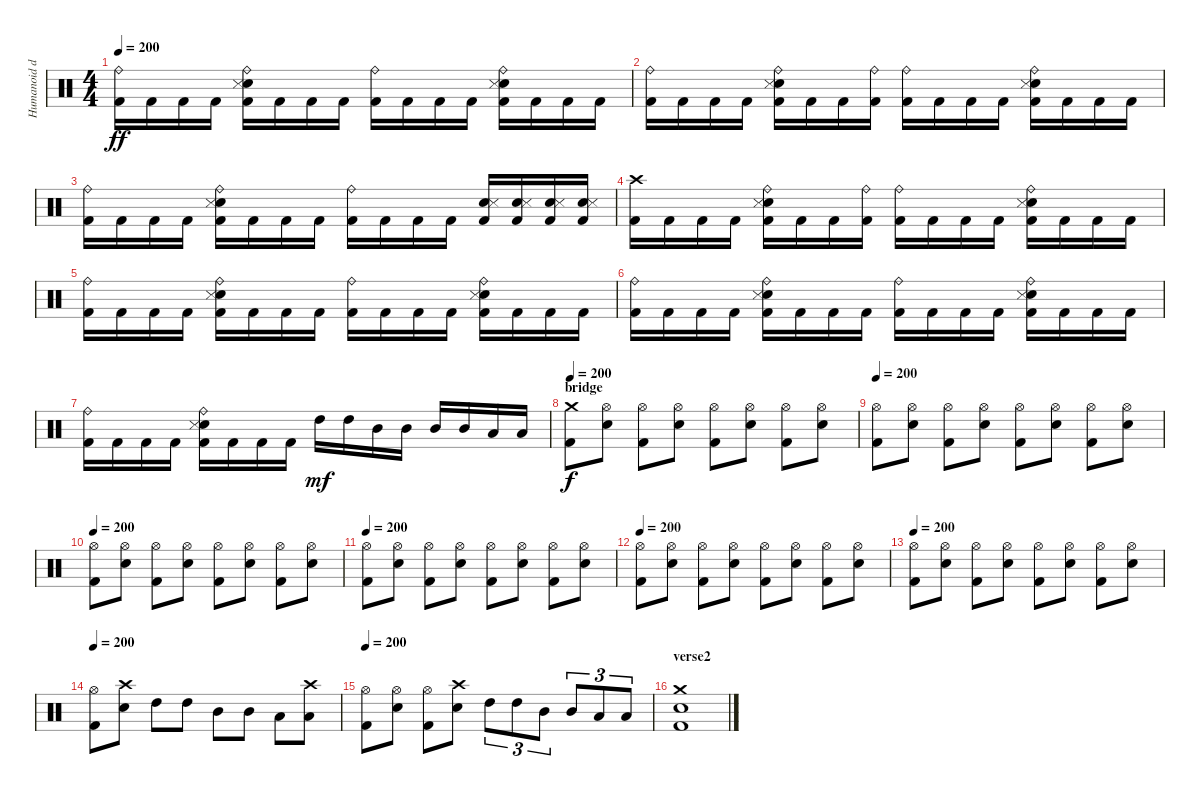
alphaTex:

\track ("Humanoid drum machine" "Humanoid d") {instrument percussion}
\staff {score}
\articulation defaults
\ts (4 4)
\tempo 200
\clef neutral
\ks c
("Ride (bell)" "Kick (hit) 2").16{dy ff} "Kick (hit) 2".16 "Kick (hit) 2".16 "Kick (hit) 2".16 ("Ride (bell)" "Electric Snare (hit)" "Snare (side stick) 3" "Kick (hit) 2").16 "Kick (hit) 2".16 "Kick (hit) 2".16 "Kick (hit) 2".16 ("Ride (bell)" "Kick (hit) 2").16 "Kick (hit) 2".16 "Kick (hit) 2".16 "Kick (hit) 2".16 ("Ride (bell)" "Electric Snare (hit)" "Snare (side stick) 3" "Kick (hit) 2").16 "Kick (hit) 2".16 "Kick (hit) 2".16 "Kick (hit) 2".16 |
("Ride (bell)" "Kick (hit) 2").16 "Kick (hit) 2".16 "Kick (hit) 2".16 "Kick (hit) 2".16 ("Ride (bell)" "Electric Snare (hit)" "Snare (side stick) 3" "Kick (hit) 2").16 "Kick (hit) 2".16 "Kick (hit) 2".16 ("Ride (bell)" "Kick (hit) 2").16 ("Ride (bell)" "Kick (hit) 2").16 "Kick (hit) 2".16 "Kick (hit) 2".16 "Kick (hit) 2".16 ("Ride (bell)" "Electric Snare (hit)" "Snare (side stick) 3" "Kick (hit) 2").16 "Kick (hit) 2".16 "Kick (hit) 2".16 "Kick (hit) 2".16 |
("Ride (bell)" "Kick (hit) 2").16 "Kick (hit) 2".16 "Kick (hit) 2".16 "Kick (hit) 2".16 ("Ride (bell)" "Electric Snare (hit)" "Snare (side stick) 3" "Kick (hit) 2").16 "Kick (hit) 2".16 "Kick (hit) 2".16 "Kick (hit) 2".16 ("Ride (bell)" "Kick (hit) 2").16 "Kick (hit) 2".16 "Kick (hit) 2".16 "Kick (hit) 2".16 ("Electric Snare (hit)" "Snare (side stick) 3" "Kick (hit) 2").16 ("Electric Snare (hit)" "Snare (side stick) 3" "Kick (hit) 2").16 ("Electric Snare (hit)" "Snare (side stick) 3" "Kick (hit) 2").16 ("Electric Snare (hit)" "Snare (side stick) 3" "Kick (hit) 2").16 |
("Crash high (hit)" "Kick (hit) 2").16 "Kick (hit) 2".16 "Kick (hit) 2".16 "Kick (hit) 2".16 ("Ride (bell)" "Electric Snare (hit)" "Snare (side stick) 3" "Kick (hit) 2").16 "Kick (hit) 2".16 "Kick (hit) 2".16 ("Ride (bell)" "Kick (hit) 2").16 ("Ride (bell)" "Kick (hit) 2").16 "Kick (hit) 2".16 "Kick (hit) 2".16 "Kick (hit) 2".16 ("Ride (bell)" "Electric Snare (hit)" "Snare (side stick) 3" "Kick (hit) 2").16 "Kick (hit) 2".16 "Kick (hit) 2".16 "Kick (hit) 2".16 |
("Ride (bell)" "Kick (hit) 2").16 "Kick (hit) 2".16 "Kick (hit) 2".16 "Kick (hit) 2".16 ("Ride (bell)" "Electric Snare (hit)" "Snare (side stick) 3" "Kick (hit) 2").16 "Kick (hit) 2".16 "Kick (hit) 2".16 "Kick (hit) 2".16 ("Ride (bell)" "Kick (hit) 2").16 "Kick (hit) 2".16 "Kick (hit) 2".16 "Kick (hit) 2".16 ("Ride (bell)" "Electric Snare (hit)" "Snare (side stick) 3" "Kick (hit) 2").16 "Kick (hit) 2".16 "Kick (hit) 2".16 "Kick (hit) 2".16 |
("Ride (bell)" "Kick (hit) 2").16 "Kick (hit) 2".16 "Kick (hit) 2".16 "Kick (hit) 2".16 ("Ride (bell)" "Electric Snare (hit)" "Snare (side stick) 3" "Kick (hit) 2").16 "Kick (hit) 2".16 "Kick (hit) 2".16 "Kick (hit) 2".16 ("Ride (bell)" "Kick (hit) 2").16 "Kick (hit) 2".16 "Kick (hit) 2".16 "Kick (hit) 2".16 ("Ride (bell)" "Electric Snare (hit)" "Snare (side stick) 3" "Kick (hit) 2").16 "Kick (hit) 2".16 "Kick (hit) 2".16 "Kick (hit) 2".16 |
("Ride (bell)" "Kick (hit) 2").16 "Kick (hit) 2".16 "Kick (hit) 2".16 "Kick (hit) 2".16 ("Ride (bell)" "Electric Snare (hit)" "Snare (side stick) 3" "Kick (hit) 2").16 "Kick (hit) 2".16 "Kick (hit) 2".16 "Kick (hit) 2".16 "High Tom (hit)".16{dy mf} "High Tom (hit)".16 "Mid Tom (hit)".16 "Mid Tom (hit)".16 "Mid Tom (hit)".16 "Mid Tom (hit)".16 "Low Tom (hit)".16 "Low Tom (hit)".16 |
\section ("" "bridge")
\tempo 200
("Crash medium (hit)" "Kick (hit) 2").8{dy f} ("Hi-Hat (open)" "Electric Snare (hit)").8 ("Hi-Hat (open)" "Kick (hit) 2").8 ("Hi-Hat (open)" "Electric Snare (hit)").8 ("Hi-Hat (open)" "Kick (hit) 2").8 ("Hi-Hat (open)" "Electric Snare (hit)").8 ("Hi-Hat (open)" "Kick (hit) 2").8 ("Hi-Hat (open)" "Electric Snare (hit)").8 |
\tempo 200
("Hi-Hat (open)" "Kick (hit) 2").8 ("Hi-Hat (open)" "Electric Snare (hit)").8 ("Hi-Hat (open)" "Kick (hit) 2").8 ("Hi-Hat (open)" "Electric Snare (hit)").8 ("Hi-Hat (open)" "Kick (hit) 2").8 ("Hi-Hat (open)" "Electric Snare (hit)").8 ("Hi-Hat (open)" "Kick (hit) 2").8 ("Hi-Hat (open)" "Electric Snare (hit)").8 |
\tempo 200
("Hi-Hat (open)" "Kick (hit) 2").8 ("Hi-Hat (open)" "Electric Snare (hit)").8 ("Hi-Hat (open)" "Kick (hit) 2").8 ("Hi-Hat (open)" "Electric Snare (hit)").8 ("Hi-Hat (open)" "Kick (hit) 2").8 ("Hi-Hat (open)" "Electric Snare (hit)").8 ("Hi-Hat (open)" "Kick (hit) 2").8 ("Hi-Hat (open)" "Electric Snare (hit)").8 |
\tempo 200
("Hi-Hat (open)" "Kick (hit) 2").8 ("Hi-Hat (open)" "Electric Snare (hit)").8 ("Hi-Hat (open)" "Kick (hit) 2").8 ("Hi-Hat (open)" "Electric Snare (hit)").8 ("Hi-Hat (open)" "Kick (hit) 2").8 ("Hi-Hat (open)" "Electric Snare (hit)").8 ("Hi-Hat (open)" "Kick (hit) 2").8 ("Hi-Hat (open)" "Electric Snare (hit)").8 |
\tempo 200
("Hi-Hat (open)" "Kick (hit) 2").8 ("Hi-Hat (open)" "Electric Snare (hit)").8 ("Hi-Hat (open)" "Kick (hit) 2").8 ("Hi-Hat (open)" "Electric Snare (hit)").8 ("Hi-Hat (open)" "Kick (hit) 2").8 ("Hi-Hat (open)" "Electric Snare (hit)").8 ("Hi-Hat (open)" "Kick (hit) 2").8 ("Hi-Hat (open)" "Electric Snare (hit)").8 |
\tempo 200
("Hi-Hat (open)" "Kick (hit) 2").8 ("Hi-Hat (open)" "Electric Snare (hit)").8 ("Hi-Hat (open)" "Kick (hit) 2").8 ("Hi-Hat (open)" "Electric Snare (hit)").8 ("Hi-Hat (open)" "Kick (hit) 2").8 ("Hi-Hat (open)" "Electric Snare (hit)").8 ("Hi-Hat (open)" "Kick (hit) 2").8 ("Hi-Hat (open)" "Electric Snare (hit)").8 |
\tempo 200
("Hi-Hat (open)" "Kick (hit) 2").8 ("Crash high (hit)" "Electric Snare (hit)").8 "High Tom (hit)".8 "High Tom (hit)".8 "Mid Tom (hit)".8 "Mid Tom (hit)".8 "Low Tom (hit)".8 ("Crash high (hit)" "Low Tom (hit)").8 |
\tempo 200
("Hi-Hat (open)" "Kick (hit) 2").8 ("Hi-Hat (open)" "Electric Snare (hit)").8 ("Hi-Hat (open)" "Kick (hit) 2").8 ("Crash high (hit)" "Electric Snare (hit)").8 "High Tom (hit)".8{tu (3 2)} "High Tom (hit)".8{tu (3 2)} "Mid Tom (hit)".8{tu (3 2)} "Mid Tom (hit)".8{tu (3 2)} "Low Tom (hit)".8{tu (3 2)} "Low Tom (hit)".8{tu (3 2)} |
\section ("" "verse2")
("Crash medium (hit)" "Electric Snare (hit)" "Kick (hit) 2").1
